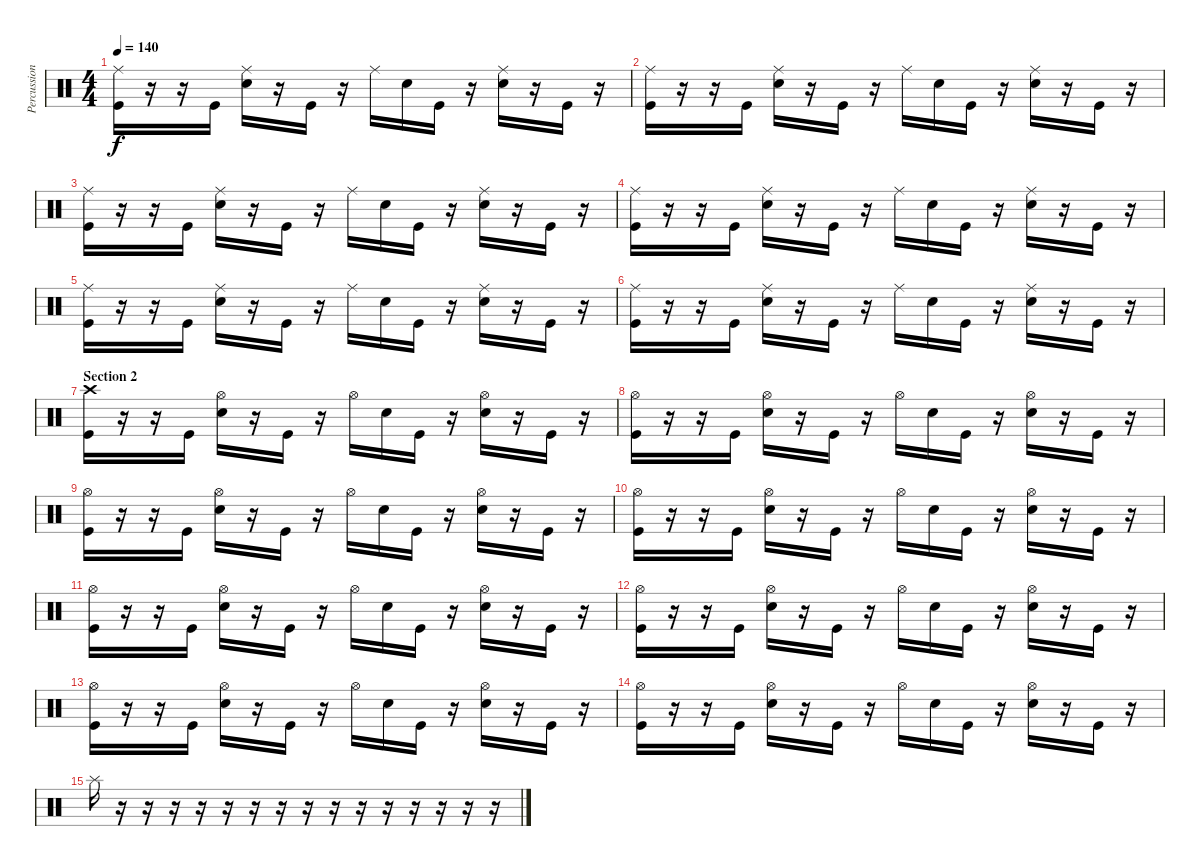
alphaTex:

\track ("Percussion" "Percussion") {instrument percussion}
\staff {score}
\articulation defaults
\ts (4 4)
\tempo 140
\clef neutral
\ks c
("Ride (middle)" "Kick (hit)").16{dy f} r.16 r.16 "Kick (hit)".16 ("Ride (middle)" "Electric Snare (hit)").16 r.16 "Kick (hit)".16 r.16 "Ride (middle)".16 "Electric Snare (hit)".16 "Kick (hit)".16 r.16 ("Ride (middle)" "Electric Snare (hit)").16 r.16 "Kick (hit)".16 r.16 |
("Ride (middle)" "Kick (hit)").16 r.16 r.16 "Kick (hit)".16 ("Ride (middle)" "Electric Snare (hit)").16 r.16 "Kick (hit)".16 r.16 "Ride (middle)".16 "Electric Snare (hit)".16 "Kick (hit)".16 r.16 ("Ride (middle)" "Electric Snare (hit)").16 r.16 "Kick (hit)".16 r.16 |
("Ride (middle)" "Kick (hit)").16 r.16 r.16 "Kick (hit)".16 ("Ride (middle)" "Electric Snare (hit)").16 r.16 "Kick (hit)".16 r.16 "Ride (middle)".16 "Electric Snare (hit)".16 "Kick (hit)".16 r.16 ("Ride (middle)" "Electric Snare (hit)").16 r.16 "Kick (hit)".16 r.16 |
("Ride (middle)" "Kick (hit)").16 r.16 r.16 "Kick (hit)".16 ("Ride (middle)" "Electric Snare (hit)").16 r.16 "Kick (hit)".16 r.16 "Ride (middle)".16 "Electric Snare (hit)".16 "Kick (hit)".16 r.16 ("Ride (middle)" "Electric Snare (hit)").16 r.16 "Kick (hit)".16 r.16 |
("Ride (middle)" "Kick (hit)").16 r.16 r.16 "Kick (hit)".16 ("Ride (middle)" "Electric Snare (hit)").16 r.16 "Kick (hit)".16 r.16 "Ride (middle)".16 "Electric Snare (hit)".16 "Kick (hit)".16 r.16 ("Ride (middle)" "Electric Snare (hit)").16 r.16 "Kick (hit)".16 r.16 |
("Ride (middle)" "Kick (hit)").16 r.16 r.16 "Kick (hit)".16 ("Ride (middle)" "Electric Snare (hit)").16 r.16 "Kick (hit)".16 r.16 "Ride (middle)".16 "Electric Snare (hit)".16 "Kick (hit)".16 r.16 ("Ride (middle)" "Electric Snare (hit)").16 r.16 "Kick (hit)".16 r.16 |
\section ("" "Section 2")
("Crash high (hit)" "Kick (hit)").16 r.16 r.16 "Kick (hit)".16 ("Hi-Hat (open)" "Electric Snare (hit)").16 r.16 "Kick (hit)".16 r.16 "Hi-Hat (open)".16 "Electric Snare (hit)".16 "Kick (hit)".16 r.16 ("Hi-Hat (open)" "Electric Snare (hit)").16 r.16 "Kick (hit)".16 r.16 |
("Hi-Hat (open)" "Kick (hit)").16 r.16 r.16 "Kick (hit)".16 ("Hi-Hat (open)" "Electric Snare (hit)").16 r.16 "Kick (hit)".16 r.16 "Hi-Hat (open)".16 "Electric Snare (hit)".16 "Kick (hit)".16 r.16 ("Hi-Hat (open)" "Electric Snare (hit)").16 r.16 "Kick (hit)".16 r.16 |
("Hi-Hat (open)" "Kick (hit)").16 r.16 r.16 "Kick (hit)".16 ("Hi-Hat (open)" "Electric Snare (hit)").16 r.16 "Kick (hit)".16 r.16 "Hi-Hat (open)".16 "Electric Snare (hit)".16 "Kick (hit)".16 r.16 ("Hi-Hat (open)" "Electric Snare (hit)").16 r.16 "Kick (hit)".16 r.16 |
("Hi-Hat (open)" "Kick (hit)").16 r.16 r.16 "Kick (hit)".16 ("Hi-Hat (open)" "Electric Snare (hit)").16 r.16 "Kick (hit)".16 r.16 "Hi-Hat (open)".16 "Electric Snare (hit)".16 "Kick (hit)".16 r.16 ("Hi-Hat (open)" "Electric Snare (hit)").16 r.16 "Kick (hit)".16 r.16 |
("Hi-Hat (open)" "Kick (hit)").16 r.16 r.16 "Kick (hit)".16 ("Hi-Hat (open)" "Electric Snare (hit)").16 r.16 "Kick (hit)".16 r.16 "Hi-Hat (open)".16 "Electric Snare (hit)".16 "Kick (hit)".16 r.16 ("Hi-Hat (open)" "Electric Snare (hit)").16 r.16 "Kick (hit)".16 r.16 |
("Hi-Hat (open)" "Kick (hit)").16 r.16 r.16 "Kick (hit)".16 ("Hi-Hat (open)" "Electric Snare (hit)").16 r.16 "Kick (hit)".16 r.16 "Hi-Hat (open)".16 "Electric Snare (hit)".16 "Kick (hit)".16 r.16 ("Hi-Hat (open)" "Electric Snare (hit)").16 r.16 "Kick (hit)".16 r.16 |
("Hi-Hat (open)" "Kick (hit)").16 r.16 r.16 "Kick (hit)".16 ("Hi-Hat (open)" "Electric Snare (hit)").16 r.16 "Kick (hit)".16 r.16 "Hi-Hat (open)".16 "Electric Snare (hit)".16 "Kick (hit)".16 r.16 ("Hi-Hat (open)" "Electric Snare (hit)").16 r.16 "Kick (hit)".16 r.16 |
("Hi-Hat (open)" "Kick (hit)").16 r.16 r.16 "Kick (hit)".16 ("Hi-Hat (open)" "Electric Snare (hit)").16 r.16 "Kick (hit)".16 r.16 "Hi-Hat (open)".16 "Electric Snare (hit)".16 "Kick (hit)".16 r.16 ("Hi-Hat (open)" "Electric Snare (hit)").16 r.16 "Kick (hit)".16 r.16 |
"Splash (hit)".16 r.16 r.16 r.16 r.16 r.16 r.16 r.16 r.16 r.16 r.16 r.16 r.16 r.16 r.16 r.16
